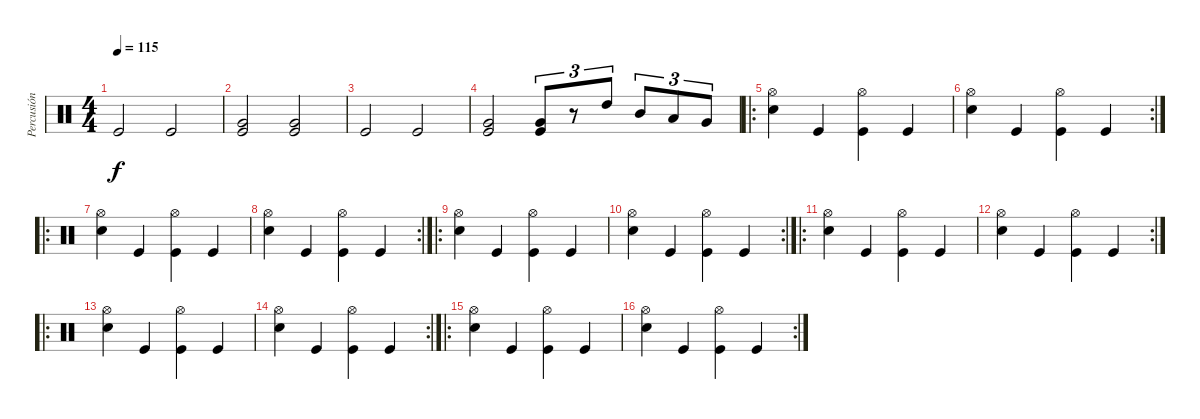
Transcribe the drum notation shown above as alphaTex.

\track ("Percusión" "Percusión") {instrument percussion}
\staff {score}
\articulation defaults
\ts (4 4)
\tempo 115
\clef neutral
\ks c "Kick (hit)".2{dy f} "Kick (hit)".2
|
("Very Low Tom (hit)" "Kick (hit)").2 ("Very Low Tom (hit)" "Kick (hit)").2 |
"Kick (hit)".2 "Kick (hit)".2 |
("Very Low Tom (hit)" "Kick (hit)").2 ("Very Low Tom (hit)" "Kick (hit)").8{tu (3 2)} r.8{tu (3 2)} "High Tom (hit)".8{tu (3 2)} "Mid Tom (hit)".8{tu (3 2)} "Low Tom (hit)".8{tu (3 2)} "Very Low Tom (hit)".8{tu (3 2)} |
\ro
("Hi-Hat (open)" "Electric Snare (hit)").4 "Kick (hit)".4 ("Hi-Hat (open)" "Kick (hit)").4 "Kick (hit)".4 |
\rc 2
("Hi-Hat (open)" "Electric Snare (hit)").4 "Kick (hit)".4 ("Hi-Hat (open)" "Kick (hit)").4 "Kick (hit)".4 |
\ro
("Hi-Hat (open)" "Electric Snare (hit)").4 "Kick (hit)".4 ("Hi-Hat (open)" "Kick (hit)").4 "Kick (hit)".4 |
\rc 2
("Hi-Hat (open)" "Electric Snare (hit)").4 "Kick (hit)".4 ("Hi-Hat (open)" "Kick (hit)").4 "Kick (hit)".4 |
\ro
("Hi-Hat (open)" "Electric Snare (hit)").4 "Kick (hit)".4 ("Hi-Hat (open)" "Kick (hit)").4 "Kick (hit)".4 |
\rc 2
("Hi-Hat (open)" "Electric Snare (hit)").4 "Kick (hit)".4 ("Hi-Hat (open)" "Kick (hit)").4 "Kick (hit)".4 |
\ro
("Hi-Hat (open)" "Electric Snare (hit)").4 "Kick (hit)".4 ("Hi-Hat (open)" "Kick (hit)").4 "Kick (hit)".4 |
\rc 2
("Hi-Hat (open)" "Electric Snare (hit)").4 "Kick (hit)".4 ("Hi-Hat (open)" "Kick (hit)").4 "Kick (hit)".4 |
\ro
("Hi-Hat (open)" "Electric Snare (hit)").4 "Kick (hit)".4 ("Hi-Hat (open)" "Kick (hit)").4 "Kick (hit)".4 |
\rc 2
("Hi-Hat (open)" "Electric Snare (hit)").4 "Kick (hit)".4 ("Hi-Hat (open)" "Kick (hit)").4 "Kick (hit)".4 |
\ro
("Hi-Hat (open)" "Electric Snare (hit)").4 "Kick (hit)".4 ("Hi-Hat (open)" "Kick (hit)").4 "Kick (hit)".4 |
\rc 2
("Hi-Hat (open)" "Electric Snare (hit)").4 "Kick (hit)".4 ("Hi-Hat (open)" "Kick (hit)").4 "Kick (hit)".4
